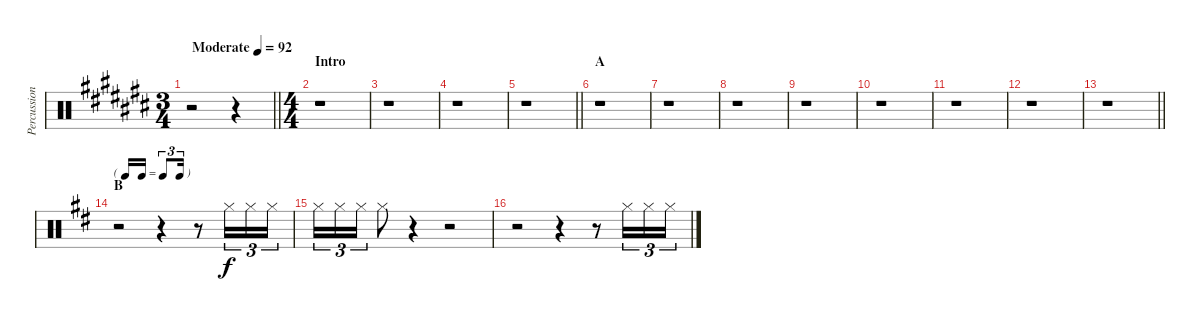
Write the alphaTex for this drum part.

\track ("Percussion" "Percussion") {instrument percussion}
\staff {score}
\articulation defaults
\ts (3 4)
\tempo (92 "Moderate")
\clef neutral
\barLineRight lightlight
\ks c#
r.2{dy f} r.4 |
\ts (4 4)
\section ("" "Intro")
r.1 |
r.1 |
r.1 |
\barLineRight lightlight
r.1 |
\section ("" "A")
r.1 |
r.1 |
r.1 |
r.1 |
r.1 |
r.1 |
r.1 |
\barLineRight lightlight
r.1 |
\tf triplet16th
\section ("" "B")
\ks d
r.2 r.4 r.8 "Hi-Hat (closed)".16{tu (3 2)} "Hi-Hat (closed)".16{tu (3 2)} "Hi-Hat (closed)".16{tu (3 2)} |
"Hi-Hat (closed)".16{tu (3 2)} "Hi-Hat (closed)".16{tu (3 2)} "Hi-Hat (closed)".16{tu (3 2)} "Hi-Hat (closed)".8 r.4 r.2 |
r.2 r.4 r.8 "Hi-Hat (closed)".16{tu (3 2)} "Hi-Hat (closed)".16{tu (3 2)} "Hi-Hat (closed)".16{tu (3 2)}
